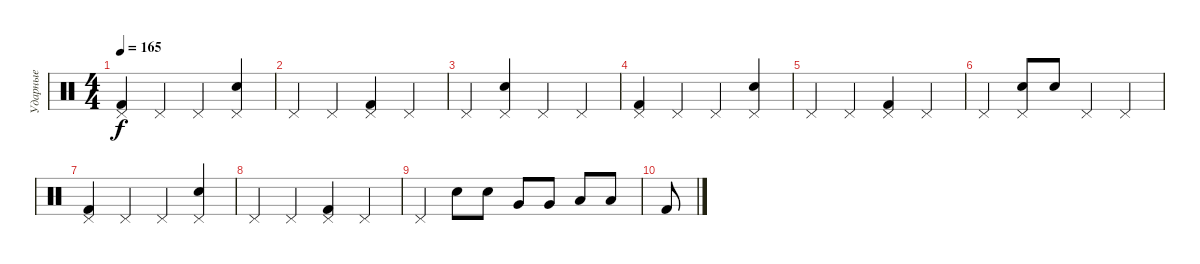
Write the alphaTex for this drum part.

\track ("Ударные" "Ударные") {instrument percussion}
\staff {score}
\articulation defaults
\ts (4 4)
\tempo 165
\clef neutral
\ks c
("Pedal Hi-Hat (hit)" "Kick (hit) 2").4{dy f} "Pedal Hi-Hat (hit)".4 "Pedal Hi-Hat (hit)".4 ("Pedal Hi-Hat (hit)" "Snare (hit) 2").4 |
"Pedal Hi-Hat (hit)".4 "Pedal Hi-Hat (hit)".4 ("Pedal Hi-Hat (hit)" "Kick (hit) 2").4 "Pedal Hi-Hat (hit)".4 |
"Pedal Hi-Hat (hit)".4 ("Pedal Hi-Hat (hit)" "Snare (hit) 2").4 "Pedal Hi-Hat (hit)".4 "Pedal Hi-Hat (hit)".4 |
("Pedal Hi-Hat (hit)" "Kick (hit) 2").4 "Pedal Hi-Hat (hit)".4 "Pedal Hi-Hat (hit)".4 ("Pedal Hi-Hat (hit)" "Snare (hit) 2").4 |
"Pedal Hi-Hat (hit)".4 "Pedal Hi-Hat (hit)".4 ("Pedal Hi-Hat (hit)" "Kick (hit) 2").4 "Pedal Hi-Hat (hit)".4 |
"Pedal Hi-Hat (hit)".4 ("Pedal Hi-Hat (hit)" "Snare (hit) 2").8 "Snare (hit) 2".8 "Pedal Hi-Hat (hit)".4 "Pedal Hi-Hat (hit)".4 |
("Pedal Hi-Hat (hit)" "Kick (hit) 2").4 "Pedal Hi-Hat (hit)".4 "Pedal Hi-Hat (hit)".4 ("Pedal Hi-Hat (hit)" "Snare (hit) 2").4 |
"Pedal Hi-Hat (hit)".4 "Pedal Hi-Hat (hit)".4 ("Pedal Hi-Hat (hit)" "Kick (hit) 2").4 "Pedal Hi-Hat (hit)".4 |
"Pedal Hi-Hat (hit)".4 "Snare (hit) 2".8 "Snare (hit) 2".8 "Very Low Tom (hit)".8 "Very Low Tom (hit)".8 "Low Floor Tom (hit)".8 "Low Floor Tom (hit)".8 |
"Kick (hit) 2".8
